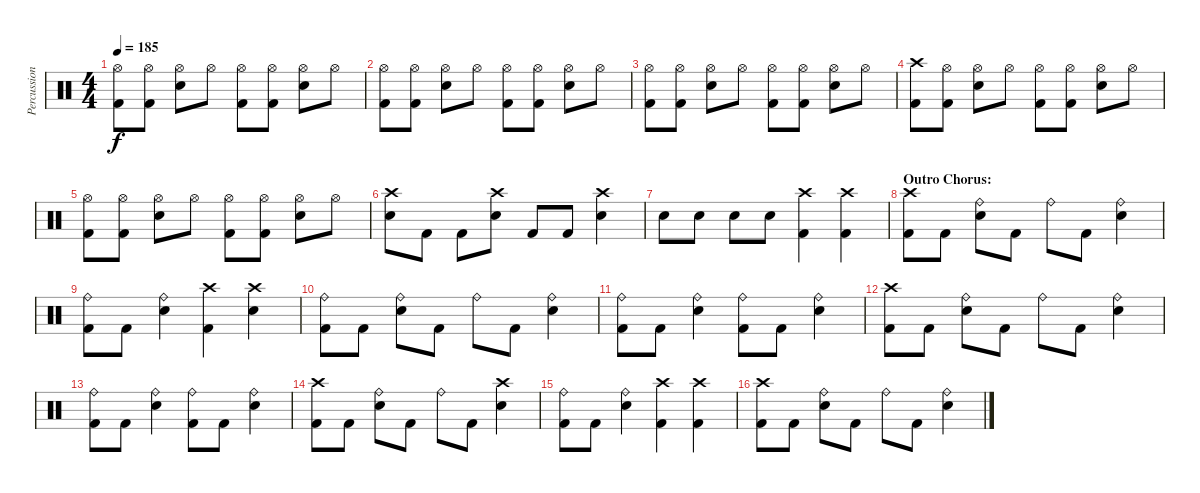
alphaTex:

\track ("Percussion" "Percussion") {instrument percussion}
\staff {score}
\articulation defaults
\ts (4 4)
\tempo 185
\clef neutral
\ks c
("Hi-Hat (open)" "Kick (hit) 2").8{dy f} ("Hi-Hat (open)" "Kick (hit) 2").8 ("Hi-Hat (open)" "Snare (hit) 2").8 "Hi-Hat (open)".8 ("Hi-Hat (open)" "Kick (hit) 2").8 ("Hi-Hat (open)" "Kick (hit) 2").8 ("Hi-Hat (open)" "Snare (hit) 2").8 "Hi-Hat (open)".8 |
("Hi-Hat (open)" "Kick (hit) 2").8 ("Hi-Hat (open)" "Kick (hit) 2").8 ("Hi-Hat (open)" "Snare (hit) 2").8 "Hi-Hat (open)".8 ("Hi-Hat (open)" "Kick (hit) 2").8 ("Hi-Hat (open)" "Kick (hit) 2").8 ("Hi-Hat (open)" "Snare (hit) 2").8 "Hi-Hat (open)".8 |
("Hi-Hat (open)" "Kick (hit) 2").8 ("Hi-Hat (open)" "Kick (hit) 2").8 ("Hi-Hat (open)" "Snare (hit) 2").8 "Hi-Hat (open)".8 ("Hi-Hat (open)" "Kick (hit) 2").8 ("Hi-Hat (open)" "Kick (hit) 2").8 ("Hi-Hat (open)" "Snare (hit) 2").8 "Hi-Hat (open)".8 |
("Crash high (hit)" "Kick (hit) 2").8 ("Hi-Hat (open)" "Kick (hit) 2").8 ("Hi-Hat (open)" "Snare (hit) 2").8 "Hi-Hat (open)".8 ("Hi-Hat (open)" "Kick (hit) 2").8 ("Hi-Hat (open)" "Kick (hit) 2").8 ("Hi-Hat (open)" "Snare (hit) 2").8 "Hi-Hat (open)".8 |
("Hi-Hat (open)" "Kick (hit) 2").8 ("Hi-Hat (open)" "Kick (hit) 2").8 ("Hi-Hat (open)" "Snare (hit) 2").8 "Hi-Hat (open)".8 ("Hi-Hat (open)" "Kick (hit) 2").8 ("Hi-Hat (open)" "Kick (hit) 2").8 ("Hi-Hat (open)" "Snare (hit) 2").8 "Hi-Hat (open)".8 |
("Crash high (hit)" "Snare (hit) 2").8 "Kick (hit) 2".8 "Kick (hit) 2".8 ("Crash high (hit)" "Snare (hit) 2").8 "Kick (hit) 2".8 "Kick (hit) 2".8 ("Crash high (hit)" "Snare (hit) 2").4 |
"Snare (hit) 2".8 "Snare (hit) 2".8 "Snare (hit) 2".8 "Snare (hit) 2".8 ("Crash high (hit)" "Kick (hit) 2").4 ("Crash high (hit)" "Kick (hit) 2").4 |
\section ("" "Outro Chorus:")
("Crash high (hit)" "Kick (hit) 2").8 "Kick (hit) 2".8 ("Ride (bell)" "Snare (hit) 2").8 "Kick (hit) 2".8 "Ride (bell)".8 "Kick (hit) 2".8 ("Ride (bell)" "Snare (hit) 2").4 |
("Ride (bell)" "Kick (hit) 2").8 "Kick (hit) 2".8 ("Ride (bell)" "Snare (hit) 2").4 ("Crash high (hit)" "Kick (hit) 2").4 ("Crash high (hit)" "Snare (hit) 2").4 |
("Ride (bell)" "Kick (hit) 2").8 "Kick (hit) 2".8 ("Ride (bell)" "Snare (hit) 2").8 "Kick (hit) 2".8 "Ride (bell)".8 "Kick (hit) 2".8 ("Ride (bell)" "Snare (hit) 2").4 |
("Ride (bell)" "Kick (hit) 2").8 "Kick (hit) 2".8 ("Ride (bell)" "Snare (hit) 2").4 ("Ride (bell)" "Kick (hit) 2").8 "Kick (hit) 2".8 ("Ride (bell)" "Snare (hit) 2").4 |
("Crash high (hit)" "Kick (hit) 2").8 "Kick (hit) 2".8 ("Ride (bell)" "Snare (hit) 2").8 "Kick (hit) 2".8 "Ride (bell)".8 "Kick (hit) 2".8 ("Ride (bell)" "Snare (hit) 2").4 |
("Ride (bell)" "Kick (hit) 2").8 "Kick (hit) 2".8 ("Ride (bell)" "Snare (hit) 2").4 ("Ride (bell)" "Kick (hit) 2").8 "Kick (hit) 2".8 ("Ride (bell)" "Snare (hit) 2").4 |
("Crash high (hit)" "Kick (hit) 2").8 "Kick (hit) 2".8 ("Ride (bell)" "Snare (hit) 2").8 "Kick (hit) 2".8 "Ride (bell)".8 "Kick (hit) 2".8 ("Crash high (hit)" "Snare (hit) 2").4 |
("Ride (bell)" "Kick (hit) 2").8 "Kick (hit) 2".8 ("Ride (bell)" "Snare (hit) 2").4 ("Crash high (hit)" "Kick (hit) 2").4 ("Crash high (hit)" "Kick (hit) 2").4 |
("Crash high (hit)" "Kick (hit) 2").8 "Kick (hit) 2".8 ("Ride (bell)" "Snare (hit) 2").8 "Kick (hit) 2".8 "Ride (bell)".8 "Kick (hit) 2".8 ("Ride (bell)" "Snare (hit) 2").4
